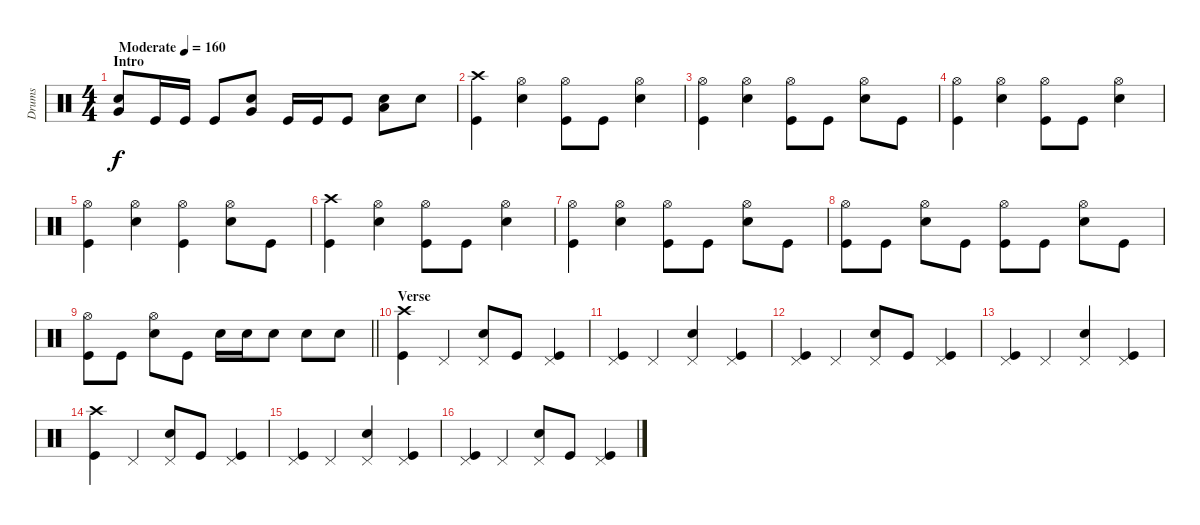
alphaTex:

\track ("Drums " "Drums ") {instrument percussion}
\staff {score}
\articulation defaults
\ts (4 4)
\section ("" "Intro ")
\tempo (160 "Moderate")
\clef neutral
\ks c
("Very Low Tom (hit)" "Electric Snare (hit)").8{dy f} "Kick (hit)".16 "Kick (hit)".16 "Kick (hit)".8 ("Very Low Tom (hit)" "Electric Snare (hit)").8 "Kick (hit)".16 "Kick (hit)".16 "Kick (hit)".8 ("Low Floor Tom (hit)" "Electric Snare (hit)").8 "Electric Snare (hit)".8 |
("Crash high (hit)" "Kick (hit)").4 ("Hi-Hat (open)" "Electric Snare (hit)").4 ("Hi-Hat (open)" "Kick (hit)").8 "Kick (hit)".8 ("Hi-Hat (open)" "Electric Snare (hit)").4 |
("Hi-Hat (open)" "Kick (hit)").4 ("Hi-Hat (open)" "Electric Snare (hit)").4 ("Hi-Hat (open)" "Kick (hit)").8 "Kick (hit)".8 ("Hi-Hat (open)" "Electric Snare (hit)").8 "Kick (hit)".8 |
("Hi-Hat (open)" "Kick (hit)").4 ("Hi-Hat (open)" "Electric Snare (hit)").4 ("Hi-Hat (open)" "Kick (hit)").8 "Kick (hit)".8 ("Hi-Hat (open)" "Electric Snare (hit)").4 |
("Hi-Hat (open)" "Kick (hit)").4 ("Hi-Hat (open)" "Electric Snare (hit)").4 ("Hi-Hat (open)" "Kick (hit)").4 ("Hi-Hat (open)" "Electric Snare (hit)").8 "Kick (hit)".8 |
("Crash high (hit)" "Kick (hit)").4 ("Hi-Hat (open)" "Electric Snare (hit)").4 ("Hi-Hat (open)" "Kick (hit)").8 "Kick (hit)".8 ("Hi-Hat (open)" "Electric Snare (hit)").4 |
("Hi-Hat (open)" "Kick (hit)").4 ("Hi-Hat (open)" "Electric Snare (hit)").4 ("Hi-Hat (open)" "Kick (hit)").8 "Kick (hit)".8 ("Hi-Hat (open)" "Electric Snare (hit)").8 "Kick (hit)".8 |
("Hi-Hat (open)" "Kick (hit)").8 "Kick (hit)".8 ("Hi-Hat (open)" "Electric Snare (hit)").8 "Kick (hit)".8 ("Hi-Hat (open)" "Kick (hit)").8 "Kick (hit)".8 ("Hi-Hat (open)" "Electric Snare (hit)").8 "Kick (hit)".8 |
\barLineRight lightlight
("Hi-Hat (open)" "Kick (hit)").8 "Kick (hit)".8 ("Hi-Hat (open)" "Electric Snare (hit)").8 "Kick (hit)".8 "Electric Snare (hit)".16 "Electric Snare (hit)".16 "Electric Snare (hit)".8 "Electric Snare (hit)".8 "Electric Snare (hit)".8 |
\section ("" "Verse ")
("Crash high (hit)" "Kick (hit)").4 "Pedal Hi-Hat (hit)".4 ("Pedal Hi-Hat (hit)" "Electric Snare (hit)").8 "Kick (hit)".8 ("Pedal Hi-Hat (hit)" "Kick (hit)").4 |
("Pedal Hi-Hat (hit)" "Kick (hit)").4 "Pedal Hi-Hat (hit)".4 ("Pedal Hi-Hat (hit)" "Electric Snare (hit)").4 ("Pedal Hi-Hat (hit)" "Kick (hit)").4 |
("Pedal Hi-Hat (hit)" "Kick (hit)").4 "Pedal Hi-Hat (hit)".4 ("Pedal Hi-Hat (hit)" "Electric Snare (hit)").8 "Kick (hit)".8 ("Pedal Hi-Hat (hit)" "Kick (hit)").4 |
("Pedal Hi-Hat (hit)" "Kick (hit)").4 "Pedal Hi-Hat (hit)".4 ("Pedal Hi-Hat (hit)" "Electric Snare (hit)").4 ("Pedal Hi-Hat (hit)" "Kick (hit)").4 |
("Crash high (hit)" "Kick (hit)").4 "Pedal Hi-Hat (hit)".4 ("Pedal Hi-Hat (hit)" "Electric Snare (hit)").8 "Kick (hit)".8 ("Pedal Hi-Hat (hit)" "Kick (hit)").4 |
("Pedal Hi-Hat (hit)" "Kick (hit)").4 "Pedal Hi-Hat (hit)".4 ("Pedal Hi-Hat (hit)" "Electric Snare (hit)").4 ("Pedal Hi-Hat (hit)" "Kick (hit)").4 |
("Pedal Hi-Hat (hit)" "Kick (hit)").4 "Pedal Hi-Hat (hit)".4 ("Pedal Hi-Hat (hit)" "Electric Snare (hit)").8 "Kick (hit)".8 ("Pedal Hi-Hat (hit)" "Kick (hit)").4
